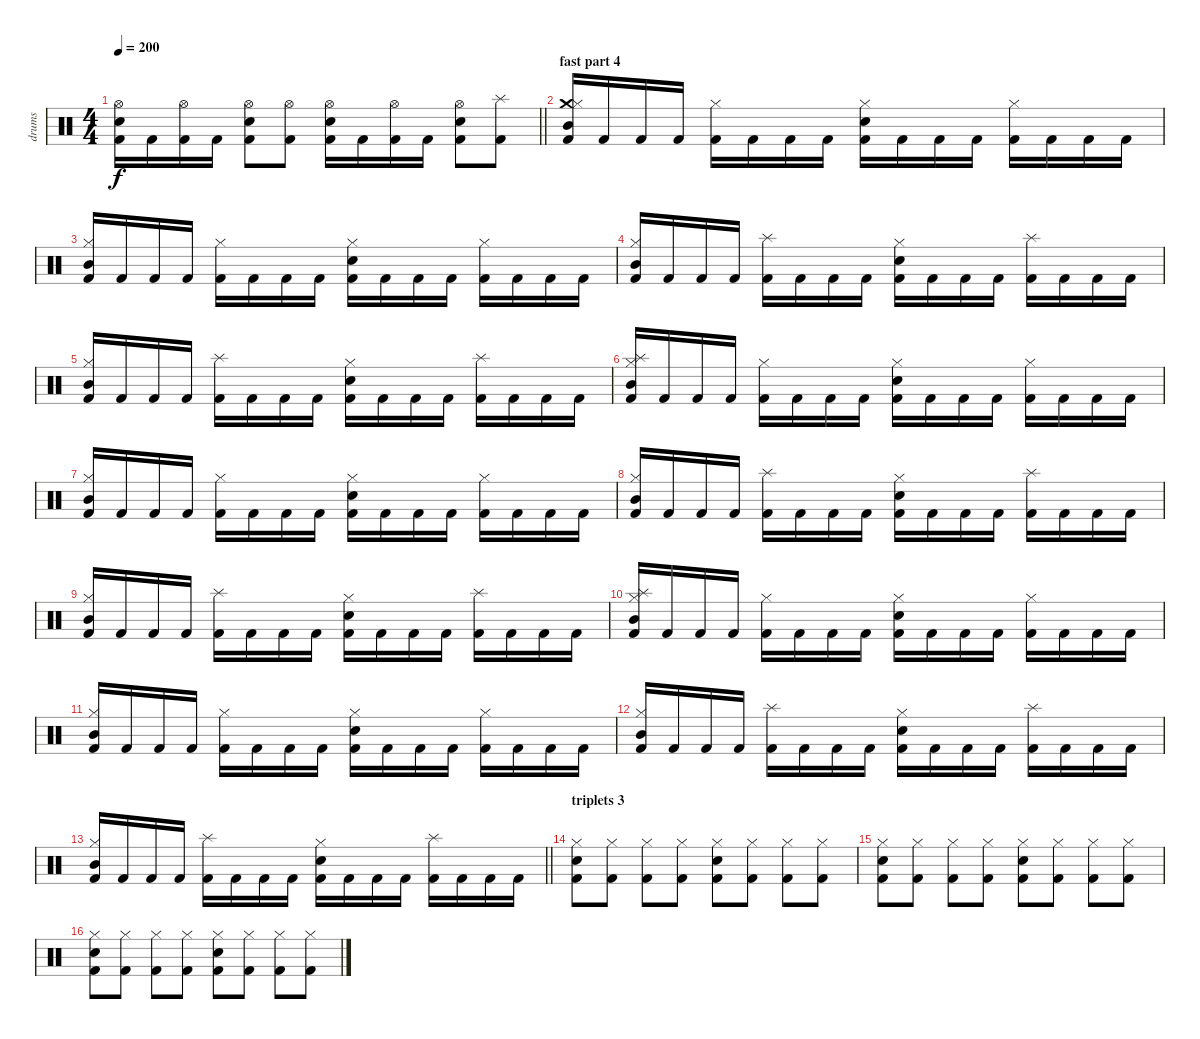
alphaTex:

\track ("drums" "drums") {instrument percussion}
\staff {score}
\articulation defaults
\ts (4 4)
\tempo 200
\clef neutral
\barLineRight lightlight
\ks c
("Hi-Hat (open)" "Snare (hit) 2" "Kick (hit) 2").16{dy f} "Kick (hit) 2".16 ("Hi-Hat (open)" "Kick (hit) 2").16 "Kick (hit) 2".16 ("Hi-Hat (open)" "Snare (hit) 2" "Kick (hit) 2").8 ("Hi-Hat (open)" "Kick (hit) 2").8 ("Hi-Hat (open)" "Snare (hit) 2" "Kick (hit) 2").16 "Kick (hit) 2".16 ("Hi-Hat (open)" "Kick (hit) 2").16 "Kick (hit) 2".16 ("Hi-Hat (open)" "Snare (hit) 2" "Kick (hit) 2").8 ("Splash (hit)" "Kick (hit) 2").8 |
\section ("" "fast part 4")
("Crash medium (hit)" "Hi-Hat (closed)" "Mid Tom (hit)" "Kick (hit) 2").16 "Kick (hit) 2".16 "Kick (hit) 2".16 "Kick (hit) 2".16 ("Hi-Hat (closed)" "Kick (hit) 2").16 "Kick (hit) 2".16 "Kick (hit) 2".16 "Kick (hit) 2".16 ("Hi-Hat (closed)" "Snare (hit) 2" "Kick (hit) 2").16 "Kick (hit) 2".16 "Kick (hit) 2".16 "Kick (hit) 2".16 ("Hi-Hat (closed)" "Kick (hit) 2").16 "Kick (hit) 2".16 "Kick (hit) 2".16 "Kick (hit) 2".16 |
("Hi-Hat (closed)" "Mid Tom (hit)" "Kick (hit) 2").16 "Kick (hit) 2".16 "Kick (hit) 2".16 "Kick (hit) 2".16 ("Hi-Hat (closed)" "Kick (hit) 2").16 "Kick (hit) 2".16 "Kick (hit) 2".16 "Kick (hit) 2".16 ("Hi-Hat (closed)" "Snare (hit) 2" "Kick (hit) 2").16 "Kick (hit) 2".16 "Kick (hit) 2".16 "Kick (hit) 2".16 ("Hi-Hat (closed)" "Kick (hit) 2").16 "Kick (hit) 2".16 "Kick (hit) 2".16 "Kick (hit) 2".16 |
("Hi-Hat (closed)" "Mid Tom (hit)" "Kick (hit) 2").16 "Kick (hit) 2".16 "Kick (hit) 2".16 "Kick (hit) 2".16 ("Splash (hit)" "Kick (hit) 2").16 "Kick (hit) 2".16 "Kick (hit) 2".16 "Kick (hit) 2".16 ("Hi-Hat (closed)" "Snare (hit) 2" "Kick (hit) 2").16 "Kick (hit) 2".16 "Kick (hit) 2".16 "Kick (hit) 2".16 ("Splash (hit)" "Kick (hit) 2").16 "Kick (hit) 2".16 "Kick (hit) 2".16 "Kick (hit) 2".16 |
("Hi-Hat (closed)" "Mid Tom (hit)" "Kick (hit) 2").16 "Kick (hit) 2".16 "Kick (hit) 2".16 "Kick (hit) 2".16 ("Splash (hit)" "Kick (hit) 2").16 "Kick (hit) 2".16 "Kick (hit) 2".16 "Kick (hit) 2".16 ("Hi-Hat (closed)" "Snare (hit) 2" "Kick (hit) 2").16 "Kick (hit) 2".16 "Kick (hit) 2".16 "Kick (hit) 2".16 ("Splash (hit)" "Kick (hit) 2").16 "Kick (hit) 2".16 "Kick (hit) 2".16 "Kick (hit) 2".16 |
("Splash (hit)" "Hi-Hat (closed)" "Mid Tom (hit)" "Kick (hit) 2").16 "Kick (hit) 2".16 "Kick (hit) 2".16 "Kick (hit) 2".16 ("Hi-Hat (closed)" "Kick (hit) 2").16 "Kick (hit) 2".16 "Kick (hit) 2".16 "Kick (hit) 2".16 ("Hi-Hat (closed)" "Snare (hit) 2" "Kick (hit) 2").16 "Kick (hit) 2".16 "Kick (hit) 2".16 "Kick (hit) 2".16 ("Hi-Hat (closed)" "Kick (hit) 2").16 "Kick (hit) 2".16 "Kick (hit) 2".16 "Kick (hit) 2".16 |
("Hi-Hat (closed)" "Mid Tom (hit)" "Kick (hit) 2").16 "Kick (hit) 2".16 "Kick (hit) 2".16 "Kick (hit) 2".16 ("Hi-Hat (closed)" "Kick (hit) 2").16 "Kick (hit) 2".16 "Kick (hit) 2".16 "Kick (hit) 2".16 ("Hi-Hat (closed)" "Snare (hit) 2" "Kick (hit) 2").16 "Kick (hit) 2".16 "Kick (hit) 2".16 "Kick (hit) 2".16 ("Hi-Hat (closed)" "Kick (hit) 2").16 "Kick (hit) 2".16 "Kick (hit) 2".16 "Kick (hit) 2".16 |
("Hi-Hat (closed)" "Mid Tom (hit)" "Kick (hit) 2").16 "Kick (hit) 2".16 "Kick (hit) 2".16 "Kick (hit) 2".16 ("Splash (hit)" "Kick (hit) 2").16 "Kick (hit) 2".16 "Kick (hit) 2".16 "Kick (hit) 2".16 ("Hi-Hat (closed)" "Snare (hit) 2" "Kick (hit) 2").16 "Kick (hit) 2".16 "Kick (hit) 2".16 "Kick (hit) 2".16 ("Splash (hit)" "Kick (hit) 2").16 "Kick (hit) 2".16 "Kick (hit) 2".16 "Kick (hit) 2".16 |
("Hi-Hat (closed)" "Mid Tom (hit)" "Kick (hit) 2").16 "Kick (hit) 2".16 "Kick (hit) 2".16 "Kick (hit) 2".16 ("Splash (hit)" "Kick (hit) 2").16 "Kick (hit) 2".16 "Kick (hit) 2".16 "Kick (hit) 2".16 ("Hi-Hat (closed)" "Snare (hit) 2" "Kick (hit) 2").16 "Kick (hit) 2".16 "Kick (hit) 2".16 "Kick (hit) 2".16 ("Splash (hit)" "Kick (hit) 2").16 "Kick (hit) 2".16 "Kick (hit) 2".16 "Kick (hit) 2".16 |
("Splash (hit)" "Hi-Hat (closed)" "Mid Tom (hit)" "Kick (hit) 2").16 "Kick (hit) 2".16 "Kick (hit) 2".16 "Kick (hit) 2".16 ("Hi-Hat (closed)" "Kick (hit) 2").16 "Kick (hit) 2".16 "Kick (hit) 2".16 "Kick (hit) 2".16 ("Hi-Hat (closed)" "Snare (hit) 2" "Kick (hit) 2").16 "Kick (hit) 2".16 "Kick (hit) 2".16 "Kick (hit) 2".16 ("Hi-Hat (closed)" "Kick (hit) 2").16 "Kick (hit) 2".16 "Kick (hit) 2".16 "Kick (hit) 2".16 |
("Hi-Hat (closed)" "Mid Tom (hit)" "Kick (hit) 2").16 "Kick (hit) 2".16 "Kick (hit) 2".16 "Kick (hit) 2".16 ("Hi-Hat (closed)" "Kick (hit) 2").16 "Kick (hit) 2".16 "Kick (hit) 2".16 "Kick (hit) 2".16 ("Hi-Hat (closed)" "Snare (hit) 2" "Kick (hit) 2").16 "Kick (hit) 2".16 "Kick (hit) 2".16 "Kick (hit) 2".16 ("Hi-Hat (closed)" "Kick (hit) 2").16 "Kick (hit) 2".16 "Kick (hit) 2".16 "Kick (hit) 2".16 |
("Hi-Hat (closed)" "Mid Tom (hit)" "Kick (hit) 2").16 "Kick (hit) 2".16 "Kick (hit) 2".16 "Kick (hit) 2".16 ("Splash (hit)" "Kick (hit) 2").16 "Kick (hit) 2".16 "Kick (hit) 2".16 "Kick (hit) 2".16 ("Hi-Hat (closed)" "Snare (hit) 2" "Kick (hit) 2").16 "Kick (hit) 2".16 "Kick (hit) 2".16 "Kick (hit) 2".16 ("Splash (hit)" "Kick (hit) 2").16 "Kick (hit) 2".16 "Kick (hit) 2".16 "Kick (hit) 2".16 |
\barLineRight lightlight
("Hi-Hat (closed)" "Mid Tom (hit)" "Kick (hit) 2").16 "Kick (hit) 2".16 "Kick (hit) 2".16 "Kick (hit) 2".16 ("Splash (hit)" "Kick (hit) 2").16 "Kick (hit) 2".16 "Kick (hit) 2".16 "Kick (hit) 2".16 ("Hi-Hat (closed)" "Snare (hit) 2" "Kick (hit) 2").16 "Kick (hit) 2".16 "Kick (hit) 2".16 "Kick (hit) 2".16 ("Splash (hit)" "Kick (hit) 2").16 "Kick (hit) 2".16 "Kick (hit) 2".16 "Kick (hit) 2".16 |
\section ("" "triplets 3")
("Hi-Hat (closed)" "Snare (hit) 2" "Kick (hit) 2").8 ("Hi-Hat (closed)" "Kick (hit) 2").8 ("Hi-Hat (closed)" "Kick (hit) 2").8 ("Hi-Hat (closed)" "Kick (hit) 2").8 ("Hi-Hat (closed)" "Snare (hit) 2" "Kick (hit) 2").8 ("Hi-Hat (closed)" "Kick (hit) 2").8 ("Hi-Hat (closed)" "Kick (hit) 2").8 ("Hi-Hat (closed)" "Kick (hit) 2").8 |
("Hi-Hat (closed)" "Snare (hit) 2" "Kick (hit) 2").8 ("Hi-Hat (closed)" "Kick (hit) 2").8 ("Hi-Hat (closed)" "Kick (hit) 2").8 ("Hi-Hat (closed)" "Kick (hit) 2").8 ("Hi-Hat (closed)" "Snare (hit) 2" "Kick (hit) 2").8 ("Hi-Hat (closed)" "Kick (hit) 2").8 ("Hi-Hat (closed)" "Kick (hit) 2").8 ("Hi-Hat (closed)" "Kick (hit) 2").8 |
("Hi-Hat (closed)" "Snare (hit) 2" "Kick (hit) 2").8 ("Hi-Hat (closed)" "Kick (hit) 2").8 ("Hi-Hat (closed)" "Kick (hit) 2").8 ("Hi-Hat (closed)" "Kick (hit) 2").8 ("Hi-Hat (closed)" "Snare (hit) 2" "Kick (hit) 2").8 ("Hi-Hat (closed)" "Kick (hit) 2").8 ("Hi-Hat (closed)" "Kick (hit) 2").8 ("Hi-Hat (closed)" "Kick (hit) 2").8
